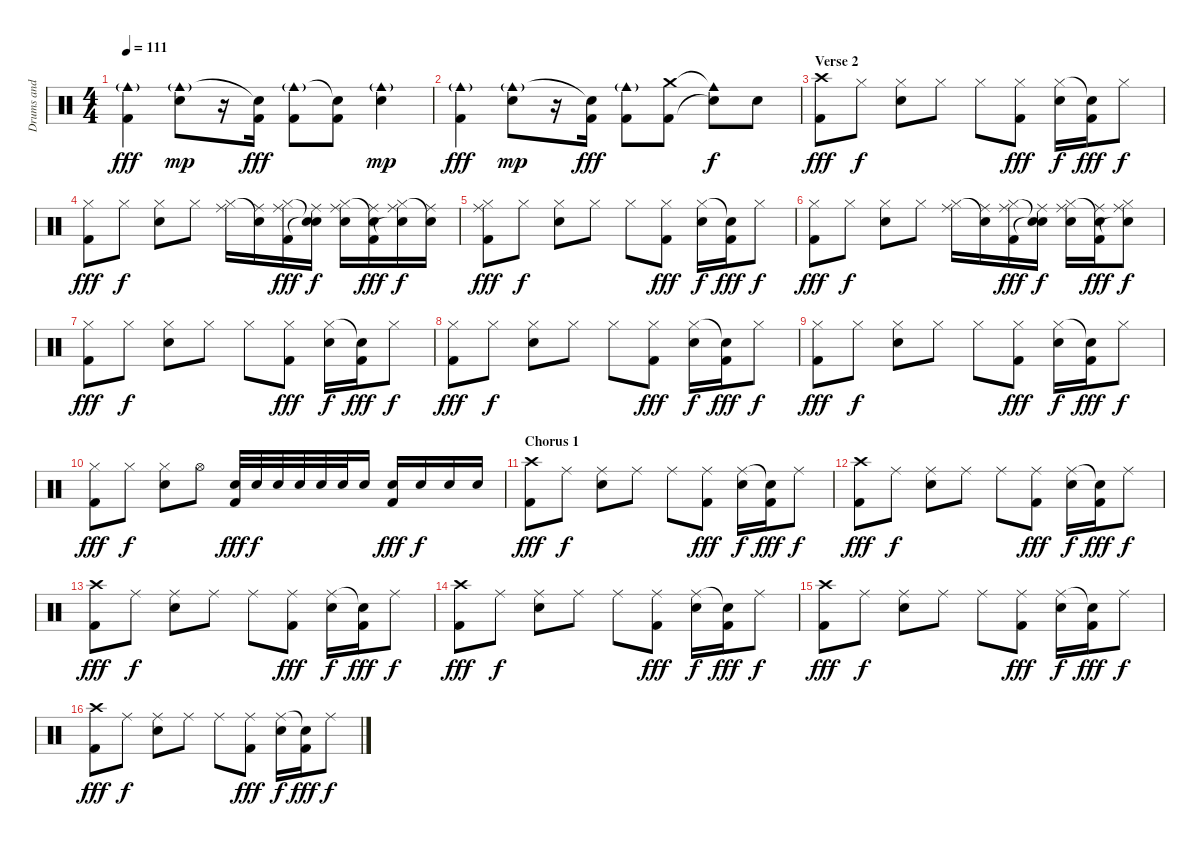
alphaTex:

\track ("Drums and Percussion" "Drums and ") {instrument percussion}
\staff {score}
\articulation defaults
\ts (4 4)
\tempo 111
\clef neutral
\ks c
("Cowbell medium (hit)"{g} "Kick (hit) 2").4{dy fff} ("Cowbell medium (hit)"{g} "Snare (hit) 2").8{dy mp} r.16 ("Snare (hit)"{t} "Kick (hit) 2").16{dy fff} ("Cowbell medium (hit)"{g} "Kick (hit) 2").8 ("Snare (hit)"{t} "Kick (hit) 2").8 ("Cowbell medium (hit)"{g} "Snare (hit) 2").4{dy mp} |
("Cowbell medium (hit)"{g} "Kick (hit) 2").4{dy fff} ("Cowbell medium (hit)"{g} "Snare (hit) 2").8{dy mp} r.16 ("Snare (hit)"{t} "Kick (hit) 2").16{dy fff} ("Cowbell medium (hit)"{g} "Kick (hit) 2").8 ("Crash medium (hit)" "Kick (hit) 2").8 ("Cowbell medium (hit)"{t} "Snare (hit)"{t}).8{dy f} "Snare (hit) 2".8 |
\section ("" "Verse 2")
("Crash high (hit)" "Kick (hit) 2").8{dy fff} "Hi-Hat (closed)".8{dy f} ("Hi-Hat (closed)" "Snare (hit) 2").8 "Hi-Hat (closed)".8 "Hi-Hat (closed)".8 ("Hi-Hat (closed)" "Kick (hit) 2").8{dy fff} ("Hi-Hat (closed)" "Snare (hit) 2").16{dy f} ("Snare (hit)"{t} "Kick (hit) 2").16{dy fff} "Hi-Hat (closed)".8{dy f} |
("Hi-Hat (closed)" "Kick (hit) 2").8{dy fff} "Hi-Hat (closed)".8{dy f} ("Hi-Hat (closed)" "Snare (hit) 2").8 "Hi-Hat (closed)".8 ("Hi-Hat (closed)" "Ride (middle)").16 ("Snare (hit)"{t} "Ride (middle)").16 ("Hi-Hat (closed)" "Ride (middle)" "Kick (hit) 2").16{dy fff} ("Snare (hit)"{t} "Ride (middle)" "Snare (hit)"{t}).16{dy f} ("Hi-Hat (closed)" "Ride (middle)" "Snare (hit) 2").16 ("Snare (hit)"{t} "Ride (middle)" "Kick (hit) 2").16{dy fff} ("Hi-Hat (closed)" "Ride (middle)" "Snare (hit)"{t}).16{dy f} ("Snare (hit)"{t} "Ride (middle)").16 |
("Hi-Hat (closed)" "Ride (middle)" "Kick (hit) 2").8{dy fff} "Hi-Hat (closed)".8{dy f} ("Hi-Hat (closed)" "Snare (hit) 2").8 "Hi-Hat (closed)".8 "Hi-Hat (closed)".8 ("Hi-Hat (closed)" "Kick (hit) 2").8{dy fff} ("Hi-Hat (closed)" "Snare (hit) 2").16{dy f} ("Snare (hit)"{t} "Kick (hit) 2").16{dy fff} "Hi-Hat (closed)".8{dy f} |
("Hi-Hat (closed)" "Kick (hit) 2").8{dy fff} "Hi-Hat (closed)".8{dy f} ("Hi-Hat (closed)" "Snare (hit) 2").8 "Hi-Hat (closed)".8 ("Hi-Hat (closed)" "Ride (middle)").16 ("Snare (hit)"{t} "Ride (middle)").16 ("Hi-Hat (closed)" "Ride (middle)" "Kick (hit) 2").16{dy fff} ("Snare (hit)"{t} "Ride (middle)" "Snare (hit)"{t}).16{dy f} ("Hi-Hat (closed)" "Ride (middle)" "Snare (hit) 2").16 ("Snare (hit)"{t} "Ride (middle)" "Kick (hit) 2").16{dy fff} ("Hi-Hat (closed)" "Ride (middle)" "Snare (hit)"{t}).8{dy f} |
("Hi-Hat (closed)" "Kick (hit) 2").8{dy fff} "Hi-Hat (closed)".8{dy f} ("Hi-Hat (closed)" "Snare (hit) 2").8 "Hi-Hat (closed)".8 "Hi-Hat (closed)".8 ("Hi-Hat (closed)" "Kick (hit) 2").8{dy fff} ("Hi-Hat (closed)" "Snare (hit) 2").16{dy f} ("Snare (hit)"{t} "Kick (hit) 2").16{dy fff} "Hi-Hat (closed)".8{dy f} |
("Hi-Hat (closed)" "Kick (hit) 2").8{dy fff} "Hi-Hat (closed)".8{dy f} ("Hi-Hat (closed)" "Snare (hit) 2").8 "Hi-Hat (closed)".8 "Hi-Hat (closed)".8 ("Hi-Hat (closed)" "Kick (hit) 2").8{dy fff} ("Hi-Hat (closed)" "Snare (hit) 2").16{dy f} ("Snare (hit)"{t} "Kick (hit) 2").16{dy fff} "Hi-Hat (closed)".8{dy f} |
("Hi-Hat (closed)" "Kick (hit) 2").8{dy fff} "Hi-Hat (closed)".8{dy f} ("Hi-Hat (closed)" "Snare (hit) 2").8 "Hi-Hat (closed)".8 "Hi-Hat (closed)".8 ("Hi-Hat (closed)" "Kick (hit) 2").8{dy fff} ("Hi-Hat (closed)" "Snare (hit) 2").16{dy f} ("Snare (hit)"{t} "Kick (hit) 2").16{dy fff} "Hi-Hat (closed)".8{dy f} |
("Hi-Hat (closed)" "Kick (hit) 2").8{dy fff} "Hi-Hat (closed)".8{dy f} ("Hi-Hat (closed)" "Snare (hit) 2").8 "Hi-Hat (open)".8 ("Snare (hit) 2" "Kick (hit) 2").32{dy fff} "Snare (hit) 2".32{dy f} "Snare (hit) 2".32 "Snare (hit) 2".32 "Snare (hit) 2".32 "Snare (hit) 2".32 "Snare (hit) 2".16 ("Snare (hit) 2" "Kick (hit) 2").16{dy fff} "Snare (hit) 2".16{dy f} "Snare (hit) 2".16 "Snare (hit) 2".16 |
\section ("" "Chorus 1")
("Crash high (hit)" "Kick (hit) 2").8{dy fff} "Ride (middle)".8{dy f} ("Ride (middle)" "Snare (hit) 2").8 "Ride (middle)".8 "Ride (middle)".8 ("Ride (middle)" "Kick (hit) 2").8{dy fff} ("Ride (middle)" "Snare (hit) 2").16{dy f} ("Snare (hit)"{t} "Kick (hit) 2").16{dy fff} "Ride (middle)".8{dy f} |
("Crash high (hit)" "Kick (hit) 2").8{dy fff} "Ride (middle)".8{dy f} ("Ride (middle)" "Snare (hit) 2").8 "Ride (middle)".8 "Ride (middle)".8 ("Ride (middle)" "Kick (hit) 2").8{dy fff} ("Ride (middle)" "Snare (hit) 2").16{dy f} ("Snare (hit)"{t} "Kick (hit) 2").16{dy fff} "Ride (middle)".8{dy f} |
("Crash high (hit)" "Kick (hit) 2").8{dy fff} "Ride (middle)".8{dy f} ("Ride (middle)" "Snare (hit) 2").8 "Ride (middle)".8 "Ride (middle)".8 ("Ride (middle)" "Kick (hit) 2").8{dy fff} ("Ride (middle)" "Snare (hit) 2").16{dy f} ("Snare (hit)"{t} "Kick (hit) 2").16{dy fff} "Ride (middle)".8{dy f} |
("Crash high (hit)" "Kick (hit) 2").8{dy fff} "Ride (middle)".8{dy f} ("Ride (middle)" "Snare (hit) 2").8 "Ride (middle)".8 "Ride (middle)".8 ("Ride (middle)" "Kick (hit) 2").8{dy fff} ("Ride (middle)" "Snare (hit) 2").16{dy f} ("Snare (hit)"{t} "Kick (hit) 2").16{dy fff} "Ride (middle)".8{dy f} |
("Crash high (hit)" "Kick (hit) 2").8{dy fff} "Ride (middle)".8{dy f} ("Ride (middle)" "Snare (hit) 2").8 "Ride (middle)".8 "Ride (middle)".8 ("Ride (middle)" "Kick (hit) 2").8{dy fff} ("Ride (middle)" "Snare (hit) 2").16{dy f} ("Snare (hit)"{t} "Kick (hit) 2").16{dy fff} "Ride (middle)".8{dy f} |
("Crash high (hit)" "Kick (hit) 2").8{dy fff} "Ride (middle)".8{dy f} ("Ride (middle)" "Snare (hit) 2").8 "Ride (middle)".8 "Ride (middle)".8 ("Ride (middle)" "Kick (hit) 2").8{dy fff} ("Ride (middle)" "Snare (hit) 2").16{dy f} ("Snare (hit)"{t} "Kick (hit) 2").16{dy fff} "Ride (middle)".8{dy f}
